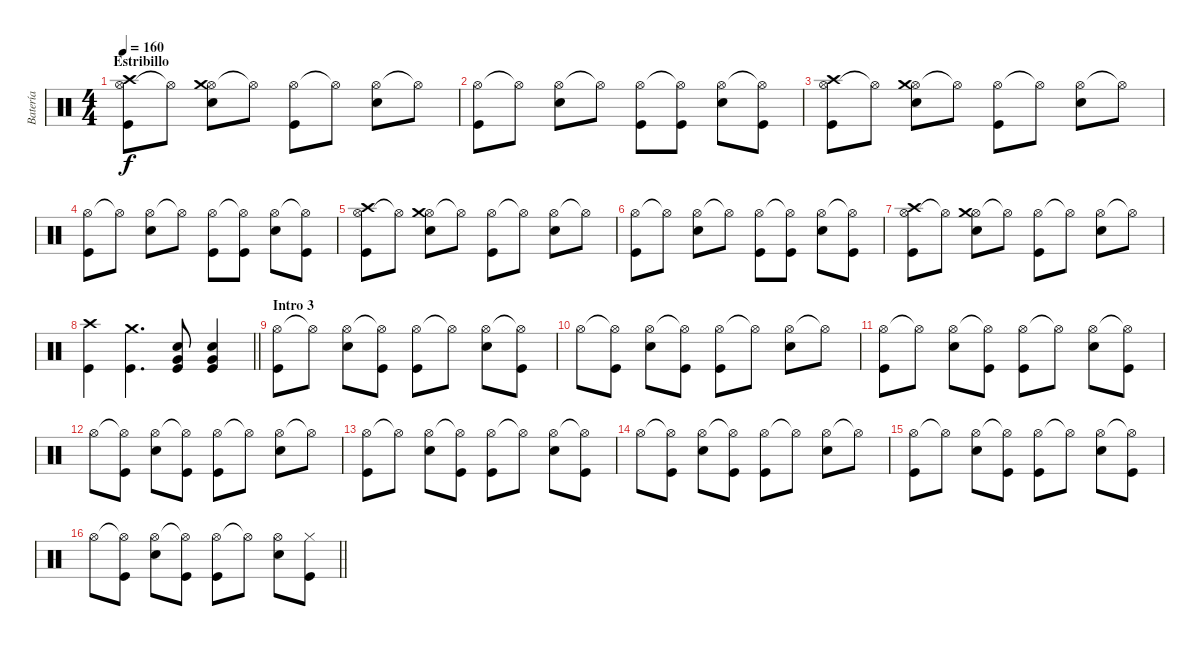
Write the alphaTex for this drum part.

\track ("Batería" "Batería") {instrument percussion}
\staff {score}
\articulation defaults
\ts (4 4)
\section ("" "Estribillo")
\tempo 160
\clef neutral
\ks c
("Hi-Hat (open)" "Kick (hit)" "Crash high (hit)").8{dy f} "Hi-Hat (open)"{t}.8 ("Hi-Hat (open)" "Electric Snare (hit)" "Crash medium (hit)").8 "Hi-Hat (open)"{t}.8 ("Hi-Hat (open)" "Kick (hit)").8 "Hi-Hat (open)"{t}.8 ("Hi-Hat (open)" "Electric Snare (hit)").8 "Hi-Hat (open)"{t}.8 |
("Hi-Hat (open)" "Kick (hit)").8 "Hi-Hat (open)"{t}.8 ("Hi-Hat (open)" "Electric Snare (hit)").8 "Hi-Hat (open)"{t}.8 ("Hi-Hat (open)" "Kick (hit)").8 ("Hi-Hat (open)"{t} "Kick (hit)").8 ("Hi-Hat (open)" "Electric Snare (hit)").8 ("Hi-Hat (open)"{t} "Kick (hit)").8 |
("Hi-Hat (open)" "Kick (hit)" "Crash high (hit)").8 "Hi-Hat (open)"{t}.8 ("Hi-Hat (open)" "Electric Snare (hit)" "Crash medium (hit)").8 "Hi-Hat (open)"{t}.8 ("Hi-Hat (open)" "Kick (hit)").8 "Hi-Hat (open)"{t}.8 ("Hi-Hat (open)" "Electric Snare (hit)").8 "Hi-Hat (open)"{t}.8 |
("Hi-Hat (open)" "Kick (hit)").8 "Hi-Hat (open)"{t}.8 ("Hi-Hat (open)" "Electric Snare (hit)").8 "Hi-Hat (open)"{t}.8 ("Hi-Hat (open)" "Kick (hit)").8 ("Hi-Hat (open)"{t} "Kick (hit)").8 ("Hi-Hat (open)" "Electric Snare (hit)").8 ("Hi-Hat (open)"{t} "Kick (hit)").8 |
("Hi-Hat (open)" "Kick (hit)" "Crash high (hit)").8 "Hi-Hat (open)"{t}.8 ("Hi-Hat (open)" "Electric Snare (hit)" "Crash medium (hit)").8 "Hi-Hat (open)"{t}.8 ("Hi-Hat (open)" "Kick (hit)").8 "Hi-Hat (open)"{t}.8 ("Hi-Hat (open)" "Electric Snare (hit)").8 "Hi-Hat (open)"{t}.8 |
("Hi-Hat (open)" "Kick (hit)").8 "Hi-Hat (open)"{t}.8 ("Hi-Hat (open)" "Electric Snare (hit)").8 "Hi-Hat (open)"{t}.8 ("Hi-Hat (open)" "Kick (hit)").8 ("Hi-Hat (open)"{t} "Kick (hit)").8 ("Hi-Hat (open)" "Electric Snare (hit)").8 ("Hi-Hat (open)"{t} "Kick (hit)").8 |
("Hi-Hat (open)" "Kick (hit)" "Crash high (hit)").8 "Hi-Hat (open)"{t}.8 ("Hi-Hat (open)" "Electric Snare (hit)" "Crash medium (hit)").8 "Hi-Hat (open)"{t}.8 ("Hi-Hat (open)" "Kick (hit)").8 "Hi-Hat (open)"{t}.8 ("Hi-Hat (open)" "Electric Snare (hit)").8 "Hi-Hat (open)"{t}.8 |
\barLineRight lightlight
("Kick (hit)" "Crash high (hit)").4 ("Kick (hit)" "Crash medium (hit)").4{d} ("Very Low Tom (hit)" "Electric Snare (hit)" "Kick (hit)").8 ("Very Low Tom (hit)" "Electric Snare (hit)" "Kick (hit)").4 |
\section ("" "Intro 3")
("Hi-Hat (open)" "Kick (hit)").8 "Hi-Hat (open)"{t}.8 ("Hi-Hat (open)" "Electric Snare (hit)").8 ("Hi-Hat (open)"{t} "Kick (hit)").8 ("Hi-Hat (open)" "Kick (hit)").8 "Hi-Hat (open)"{t}.8 ("Hi-Hat (open)" "Electric Snare (hit)").8 ("Hi-Hat (open)"{t} "Kick (hit)").8 |
"Hi-Hat (open)".8 ("Hi-Hat (open)"{t} "Kick (hit)").8 ("Hi-Hat (open)" "Electric Snare (hit)").8 ("Hi-Hat (open)"{t} "Kick (hit)").8 ("Hi-Hat (open)" "Kick (hit)").8 "Hi-Hat (open)"{t}.8 ("Hi-Hat (open)" "Electric Snare (hit)").8 "Hi-Hat (open)"{t}.8 |
("Hi-Hat (open)" "Kick (hit)").8 "Hi-Hat (open)"{t}.8 ("Hi-Hat (open)" "Electric Snare (hit)").8 ("Hi-Hat (open)"{t} "Kick (hit)").8 ("Hi-Hat (open)" "Kick (hit)").8 "Hi-Hat (open)"{t}.8 ("Hi-Hat (open)" "Electric Snare (hit)").8 ("Hi-Hat (open)"{t} "Kick (hit)").8 |
"Hi-Hat (open)".8 ("Hi-Hat (open)"{t} "Kick (hit)").8 ("Hi-Hat (open)" "Electric Snare (hit)").8 ("Hi-Hat (open)"{t} "Kick (hit)").8 ("Hi-Hat (open)" "Kick (hit)").8 "Hi-Hat (open)"{t}.8 ("Hi-Hat (open)" "Electric Snare (hit)").8 "Hi-Hat (open)"{t}.8 |
("Hi-Hat (open)" "Kick (hit)").8 "Hi-Hat (open)"{t}.8 ("Hi-Hat (open)" "Electric Snare (hit)").8 ("Hi-Hat (open)"{t} "Kick (hit)").8 ("Hi-Hat (open)" "Kick (hit)").8 "Hi-Hat (open)"{t}.8 ("Hi-Hat (open)" "Electric Snare (hit)").8 ("Hi-Hat (open)"{t} "Kick (hit)").8 |
"Hi-Hat (open)".8 ("Hi-Hat (open)"{t} "Kick (hit)").8 ("Hi-Hat (open)" "Electric Snare (hit)").8 ("Hi-Hat (open)"{t} "Kick (hit)").8 ("Hi-Hat (open)" "Kick (hit)").8 "Hi-Hat (open)"{t}.8 ("Hi-Hat (open)" "Electric Snare (hit)").8 "Hi-Hat (open)"{t}.8 |
("Hi-Hat (open)" "Kick (hit)").8 "Hi-Hat (open)"{t}.8 ("Hi-Hat (open)" "Electric Snare (hit)").8 ("Hi-Hat (open)"{t} "Kick (hit)").8 ("Hi-Hat (open)" "Kick (hit)").8 "Hi-Hat (open)"{t}.8 ("Hi-Hat (open)" "Electric Snare (hit)").8 ("Hi-Hat (open)"{t} "Kick (hit)").8 |
\barLineRight lightlight "Hi-Hat (open)".8
("Hi-Hat (open)"{t} "Kick (hit)").8 ("Hi-Hat (open)" "Electric Snare (hit)").8 ("Hi-Hat (open)"{t} "Kick (hit)").8 ("Hi-Hat (open)" "Kick (hit)").8 "Hi-Hat (open)"{t}.8 ("Hi-Hat (open)" "Electric Snare (hit)").8 ("Hi-Hat (closed)" "Kick (hit)").8
